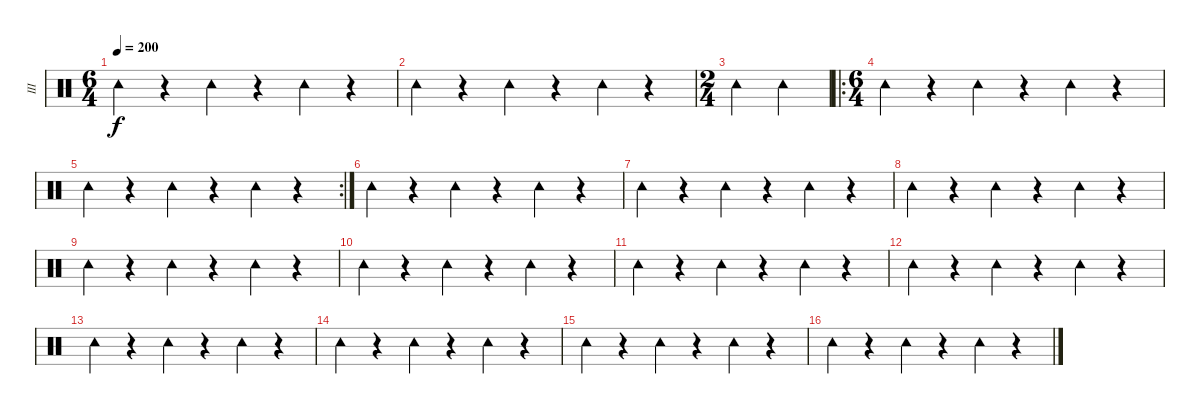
\track ("III" "III") {instrument percussion}
\staff {score}
\articulation defaults
\ts (6 4)
\tempo 200
\clef neutral
\ks c "Tambourine (hit)".4{dy f}
r.4 "Tambourine (hit)".4 r.4 "Tambourine (hit)".4 r.4 |
"Tambourine (hit)".4 r.4 "Tambourine (hit)".4 r.4 "Tambourine (hit)".4 r.4 |
\ts (2 4)
"Tambourine (hit)".4 "Tambourine (hit)".4 |
\ro
\ts (6 4)
"Tambourine (hit)".4 r.4 "Tambourine (hit)".4 r.4 "Tambourine (hit)".4 r.4 |
\rc 2 "Tambourine (hit)".4
r.4 "Tambourine (hit)".4 r.4 "Tambourine (hit)".4 r.4 |
"Tambourine (hit)".4 r.4 "Tambourine (hit)".4 r.4 "Tambourine (hit)".4 r.4 |
"Tambourine (hit)".4 r.4 "Tambourine (hit)".4 r.4 "Tambourine (hit)".4 r.4 |
"Tambourine (hit)".4 r.4 "Tambourine (hit)".4 r.4 "Tambourine (hit)".4 r.4 |
"Tambourine (hit)".4 r.4 "Tambourine (hit)".4 r.4 "Tambourine (hit)".4 r.4 |
"Tambourine (hit)".4 r.4 "Tambourine (hit)".4 r.4 "Tambourine (hit)".4 r.4 |
"Tambourine (hit)".4 r.4 "Tambourine (hit)".4 r.4 "Tambourine (hit)".4 r.4 |
"Tambourine (hit)".4 r.4 "Tambourine (hit)".4 r.4 "Tambourine (hit)".4 r.4 |
"Tambourine (hit)".4 r.4 "Tambourine (hit)".4 r.4 "Tambourine (hit)".4 r.4 |
"Tambourine (hit)".4 r.4 "Tambourine (hit)".4 r.4 "Tambourine (hit)".4 r.4 |
"Tambourine (hit)".4 r.4 "Tambourine (hit)".4 r.4 "Tambourine (hit)".4 r.4 |
"Tambourine (hit)".4 r.4 "Tambourine (hit)".4 r.4 "Tambourine (hit)".4 r.4
